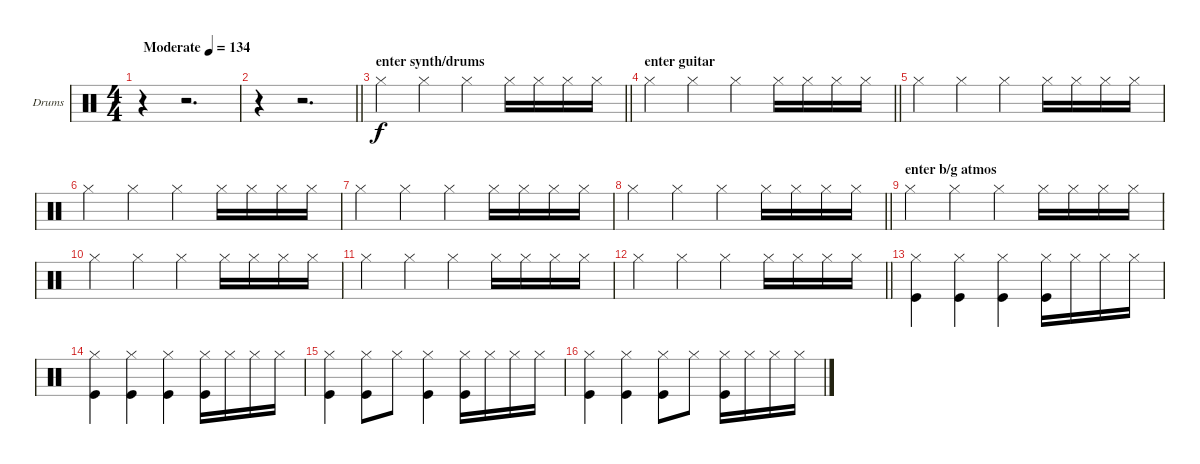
\bracketExtendMode groupsimilarinstruments
\firstSystemTrackNameOrientation horizontal
\otherSystemsTrackNameOrientation horizontal
\track ("Drumkit" "Drums") {instrument percussion}
\staff {score}
\articulation defaults
\ts (4 4)
\beaming (8 2 2 2 2)
\tempo (134 "Moderate")
\clef neutral
\ks c
r.4{dy f} r.2{d} |
\barLineRight lightlight
r.4 r.2{d} |
\section ("" "enter synth/drums")
\barLineRight lightlight "Hi-Hat (closed)".4 "Hi-Hat (closed)".4 "Hi-Hat (closed)".4 "Hi-Hat (closed)".16 "Hi-Hat (closed)".16 "Hi-Hat (closed)".16 "Hi-Hat (closed)".16
|
\section ("" "enter guitar")
\barLineRight lightlight "Hi-Hat (closed)".4 "Hi-Hat (closed)".4 "Hi-Hat (closed)".4 "Hi-Hat (closed)".16 "Hi-Hat (closed)".16 "Hi-Hat (closed)".16 "Hi-Hat (closed)".16
|
"Hi-Hat (closed)".4 "Hi-Hat (closed)".4 "Hi-Hat (closed)".4 "Hi-Hat (closed)".16 "Hi-Hat (closed)".16 "Hi-Hat (closed)".16 "Hi-Hat (closed)".16 |
"Hi-Hat (closed)".4 "Hi-Hat (closed)".4 "Hi-Hat (closed)".4 "Hi-Hat (closed)".16 "Hi-Hat (closed)".16 "Hi-Hat (closed)".16 "Hi-Hat (closed)".16 |
"Hi-Hat (closed)".4 "Hi-Hat (closed)".4 "Hi-Hat (closed)".4 "Hi-Hat (closed)".16 "Hi-Hat (closed)".16 "Hi-Hat (closed)".16 "Hi-Hat (closed)".16 |
\barLineRight lightlight "Hi-Hat (closed)".4 "Hi-Hat (closed)".4 "Hi-Hat (closed)".4 "Hi-Hat (closed)".16 "Hi-Hat (closed)".16 "Hi-Hat (closed)".16 "Hi-Hat (closed)".16
|
\section ("" "enter b/g atmos")
"Hi-Hat (closed)".4 "Hi-Hat (closed)".4 "Hi-Hat (closed)".4 "Hi-Hat (closed)".16 "Hi-Hat (closed)".16 "Hi-Hat (closed)".16 "Hi-Hat (closed)".16 |
"Hi-Hat (closed)".4 "Hi-Hat (closed)".4 "Hi-Hat (closed)".4 "Hi-Hat (closed)".16 "Hi-Hat (closed)".16 "Hi-Hat (closed)".16 "Hi-Hat (closed)".16 |
"Hi-Hat (closed)".4 "Hi-Hat (closed)".4 "Hi-Hat (closed)".4 "Hi-Hat (closed)".16 "Hi-Hat (closed)".16 "Hi-Hat (closed)".16 "Hi-Hat (closed)".16 |
\barLineRight lightlight "Hi-Hat (closed)".4 "Hi-Hat (closed)".4 "Hi-Hat (closed)".4 "Hi-Hat (closed)".16 "Hi-Hat (closed)".16 "Hi-Hat (closed)".16 "Hi-Hat (closed)".16
|
("Hi-Hat (closed)" "Kick (hit)").4 ("Hi-Hat (closed)" "Kick (hit)").4 ("Hi-Hat (closed)" "Kick (hit)").4 ("Hi-Hat (closed)" "Kick (hit)").16 "Hi-Hat (closed)".16 "Hi-Hat (closed)".16 "Hi-Hat (closed)".16 |
("Hi-Hat (closed)" "Kick (hit)").4 ("Hi-Hat (closed)" "Kick (hit)").4 ("Hi-Hat (closed)" "Kick (hit)").4 ("Hi-Hat (closed)" "Kick (hit)").16 "Hi-Hat (closed)".16 "Hi-Hat (closed)".16 "Hi-Hat (closed)".16 |
("Hi-Hat (closed)" "Kick (hit)").4 ("Hi-Hat (closed)" "Kick (hit)").8 "Hi-Hat (closed)".8 ("Hi-Hat (closed)" "Kick (hit)").4 ("Hi-Hat (closed)" "Kick (hit)").16 "Hi-Hat (closed)".16 "Hi-Hat (closed)".16 "Hi-Hat (closed)".16 |
("Hi-Hat (closed)" "Kick (hit)").4 ("Hi-Hat (closed)" "Kick (hit)").4 ("Hi-Hat (closed)" "Kick (hit)").8 "Hi-Hat (closed)".8 ("Hi-Hat (closed)" "Kick (hit)").16 "Hi-Hat (closed)".16 "Hi-Hat (closed)".16 "Hi-Hat (closed)".16
